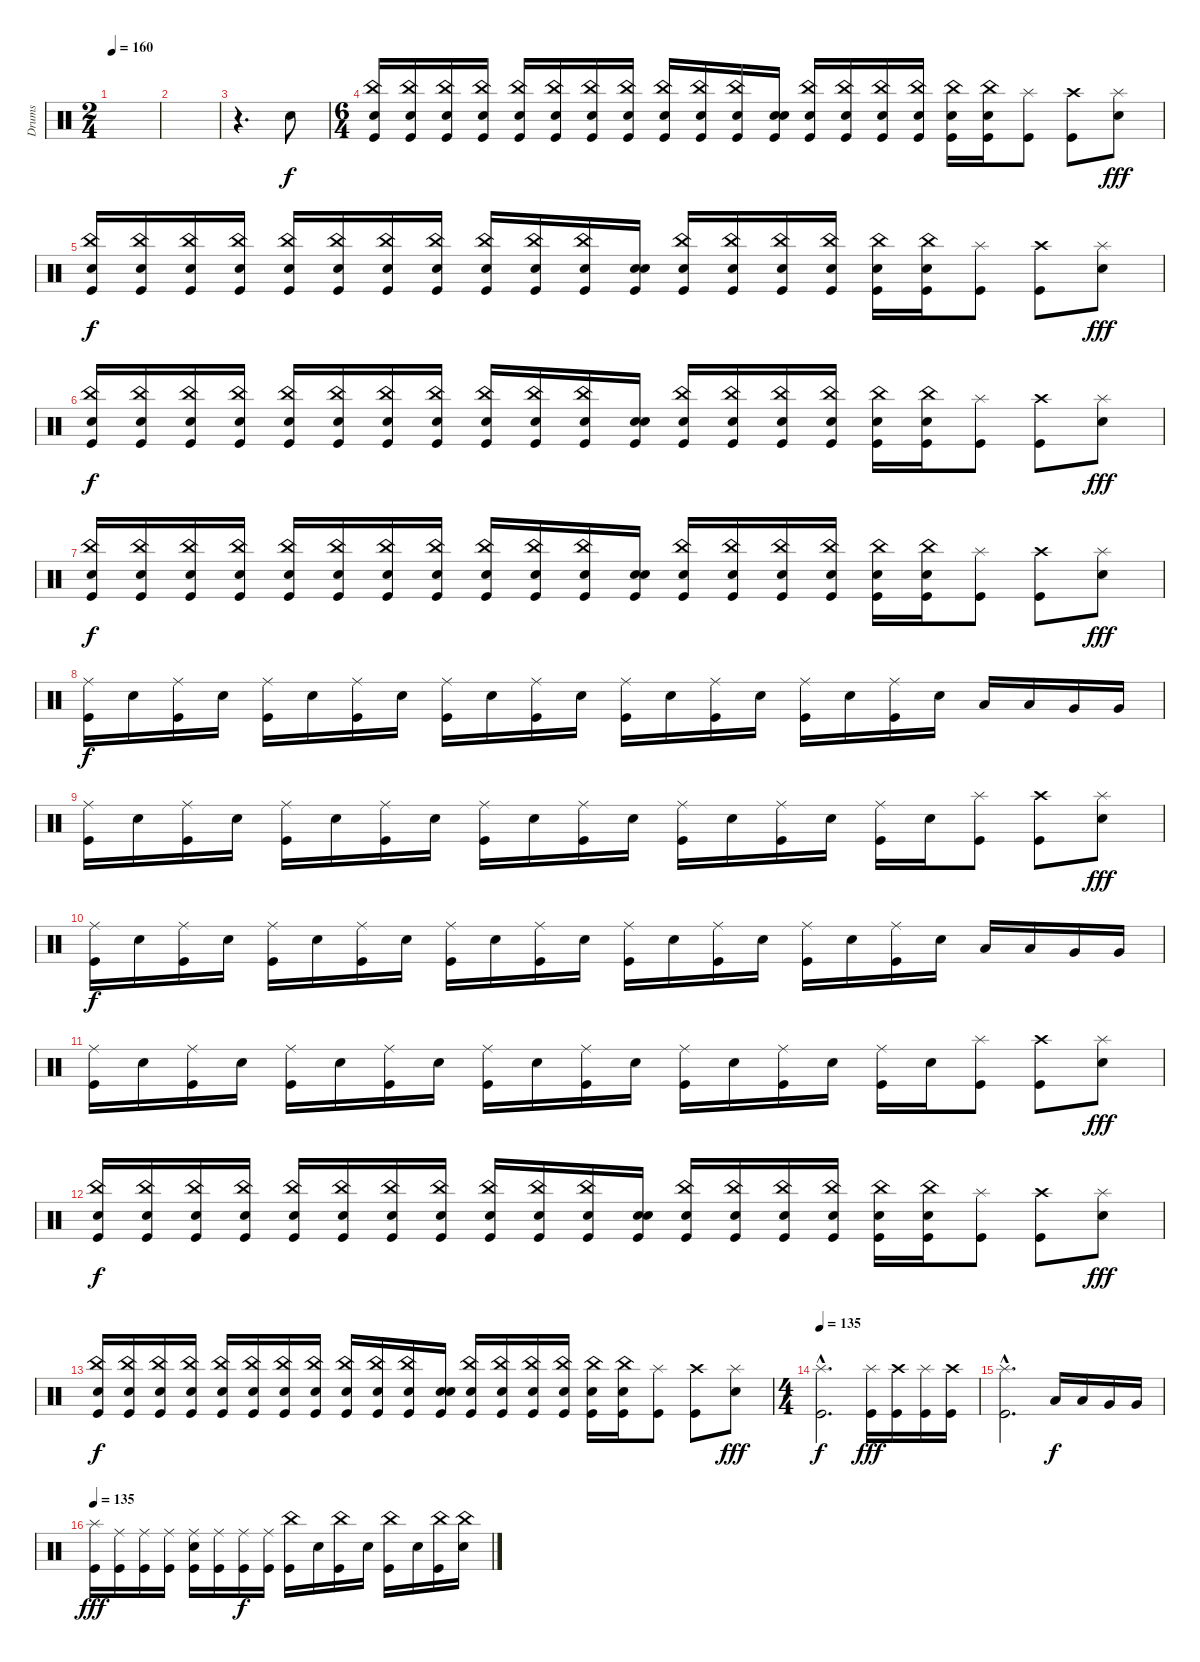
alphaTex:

\track ("Drums" "Drums") {instrument percussion}
\staff {score}
\articulation defaults
\ts (2 4)
\tempo 160
\clef neutral
\ks c
|
|
r.4{d} "Electric Snare (hit)".8 |
\ts (6 4)
("China (hit)" "Electric Snare (hit)" "Kick (hit)").16 ("China (hit)" "Electric Snare (hit)" "Kick (hit)").16 ("China (hit)" "Electric Snare (hit)" "Kick (hit)").16 ("China (hit)" "Electric Snare (hit)" "Kick (hit)").16 ("China (hit)" "Electric Snare (hit)" "Kick (hit)").16 ("China (hit)" "Electric Snare (hit)" "Kick (hit)").16 ("China (hit)" "Electric Snare (hit)" "Kick (hit)").16 ("China (hit)" "Electric Snare (hit)" "Kick (hit)").16 ("China (hit)" "Electric Snare (hit)" "Kick (hit)").16 ("China (hit)" "Electric Snare (hit)" "Kick (hit)").16 ("China (hit)" "Electric Snare (hit)" "Kick (hit)").16 ("Snare (hit)" "Electric Snare (hit)" "Kick (hit)").16 ("China (hit)" "Electric Snare (hit)" "Kick (hit)").16 ("China (hit)" "Electric Snare (hit)" "Kick (hit)").16 ("China (hit)" "Electric Snare (hit)" "Kick (hit)").16 ("China (hit)" "Electric Snare (hit)" "Kick (hit)").16 ("China (hit)" "Electric Snare (hit)" "Kick (hit)").16 ("China (hit)" "Electric Snare (hit)" "Kick (hit)").16 ("Splash (hit)" "Kick (hit)").8 ("Crash high (hit)" "Kick (hit)").8 ("Splash (hit)" "Electric Snare (hit)").8{dy fff} |
("China (hit)" "Electric Snare (hit)" "Kick (hit)").16{dy f} ("China (hit)" "Electric Snare (hit)" "Kick (hit)").16 ("China (hit)" "Electric Snare (hit)" "Kick (hit)").16 ("China (hit)" "Electric Snare (hit)" "Kick (hit)").16 ("China (hit)" "Electric Snare (hit)" "Kick (hit)").16 ("China (hit)" "Electric Snare (hit)" "Kick (hit)").16 ("China (hit)" "Electric Snare (hit)" "Kick (hit)").16 ("China (hit)" "Electric Snare (hit)" "Kick (hit)").16 ("China (hit)" "Electric Snare (hit)" "Kick (hit)").16 ("China (hit)" "Electric Snare (hit)" "Kick (hit)").16 ("China (hit)" "Electric Snare (hit)" "Kick (hit)").16 ("Snare (hit)" "Electric Snare (hit)" "Kick (hit)").16 ("China (hit)" "Electric Snare (hit)" "Kick (hit)").16 ("China (hit)" "Electric Snare (hit)" "Kick (hit)").16 ("China (hit)" "Electric Snare (hit)" "Kick (hit)").16 ("China (hit)" "Electric Snare (hit)" "Kick (hit)").16 ("China (hit)" "Electric Snare (hit)" "Kick (hit)").16 ("China (hit)" "Electric Snare (hit)" "Kick (hit)").16 ("Splash (hit)" "Kick (hit)").8 ("Crash high (hit)" "Kick (hit)").8 ("Splash (hit)" "Electric Snare (hit)").8{dy fff} |
("China (hit)" "Electric Snare (hit)" "Kick (hit)").16{dy f} ("China (hit)" "Electric Snare (hit)" "Kick (hit)").16 ("China (hit)" "Electric Snare (hit)" "Kick (hit)").16 ("China (hit)" "Electric Snare (hit)" "Kick (hit)").16 ("China (hit)" "Electric Snare (hit)" "Kick (hit)").16 ("China (hit)" "Electric Snare (hit)" "Kick (hit)").16 ("China (hit)" "Electric Snare (hit)" "Kick (hit)").16 ("China (hit)" "Electric Snare (hit)" "Kick (hit)").16 ("China (hit)" "Electric Snare (hit)" "Kick (hit)").16 ("China (hit)" "Electric Snare (hit)" "Kick (hit)").16 ("China (hit)" "Electric Snare (hit)" "Kick (hit)").16 ("Snare (hit)" "Electric Snare (hit)" "Kick (hit)").16 ("China (hit)" "Electric Snare (hit)" "Kick (hit)").16 ("China (hit)" "Electric Snare (hit)" "Kick (hit)").16 ("China (hit)" "Electric Snare (hit)" "Kick (hit)").16 ("China (hit)" "Electric Snare (hit)" "Kick (hit)").16 ("China (hit)" "Electric Snare (hit)" "Kick (hit)").16 ("China (hit)" "Electric Snare (hit)" "Kick (hit)").16 ("Splash (hit)" "Kick (hit)").8 ("Crash high (hit)" "Kick (hit)").8 ("Splash (hit)" "Electric Snare (hit)").8{dy fff} |
("China (hit)" "Electric Snare (hit)" "Kick (hit)").16{dy f} ("China (hit)" "Electric Snare (hit)" "Kick (hit)").16 ("China (hit)" "Electric Snare (hit)" "Kick (hit)").16 ("China (hit)" "Electric Snare (hit)" "Kick (hit)").16 ("China (hit)" "Electric Snare (hit)" "Kick (hit)").16 ("China (hit)" "Electric Snare (hit)" "Kick (hit)").16 ("China (hit)" "Electric Snare (hit)" "Kick (hit)").16 ("China (hit)" "Electric Snare (hit)" "Kick (hit)").16 ("China (hit)" "Electric Snare (hit)" "Kick (hit)").16 ("China (hit)" "Electric Snare (hit)" "Kick (hit)").16 ("China (hit)" "Electric Snare (hit)" "Kick (hit)").16 ("Snare (hit)" "Electric Snare (hit)" "Kick (hit)").16 ("China (hit)" "Electric Snare (hit)" "Kick (hit)").16 ("China (hit)" "Electric Snare (hit)" "Kick (hit)").16 ("China (hit)" "Electric Snare (hit)" "Kick (hit)").16 ("China (hit)" "Electric Snare (hit)" "Kick (hit)").16 ("China (hit)" "Electric Snare (hit)" "Kick (hit)").16 ("China (hit)" "Electric Snare (hit)" "Kick (hit)").16 ("Splash (hit)" "Kick (hit)").8 ("Crash high (hit)" "Kick (hit)").8 ("Splash (hit)" "Electric Snare (hit)").8{dy fff} |
("Ride (middle)" "Kick (hit)").16{dy f} "Electric Snare (hit)".16 ("Ride (middle)" "Kick (hit)").16 "Electric Snare (hit)".16 ("Ride (middle)" "Kick (hit)").16 "Electric Snare (hit)".16 ("Ride (middle)" "Kick (hit)").16 "Electric Snare (hit)".16 ("Ride (middle)" "Kick (hit)").16 "Electric Snare (hit)".16 ("Ride (middle)" "Kick (hit)").16 "Electric Snare (hit)".16 ("Ride (middle)" "Kick (hit)").16 "Electric Snare (hit)".16 ("Ride (middle)" "Kick (hit)").16 "Electric Snare (hit)".16 ("Ride (middle)" "Kick (hit)").16 "Electric Snare (hit)".16 ("Ride (middle)" "Kick (hit)").16 "Electric Snare (hit)".16 "Low Tom (hit)".16 "Low Tom (hit)".16 "Very Low Tom (hit)".16 "Very Low Tom (hit)".16 |
("Ride (middle)" "Kick (hit)").16 "Electric Snare (hit)".16 ("Ride (middle)" "Kick (hit)").16 "Electric Snare (hit)".16 ("Ride (middle)" "Kick (hit)").16 "Electric Snare (hit)".16 ("Ride (middle)" "Kick (hit)").16 "Electric Snare (hit)".16 ("Ride (middle)" "Kick (hit)").16 "Electric Snare (hit)".16 ("Ride (middle)" "Kick (hit)").16 "Electric Snare (hit)".16 ("Ride (middle)" "Kick (hit)").16 "Electric Snare (hit)".16 ("Ride (middle)" "Kick (hit)").16 "Electric Snare (hit)".16 ("Ride (middle)" "Kick (hit)").16 "Electric Snare (hit)".16 ("Splash (hit)" "Kick (hit)").8 ("Crash high (hit)" "Kick (hit)").8 ("Splash (hit)" "Electric Snare (hit)").8{dy fff} |
("Ride (middle)" "Kick (hit)").16{dy f} "Electric Snare (hit)".16 ("Ride (middle)" "Kick (hit)").16 "Electric Snare (hit)".16 ("Ride (middle)" "Kick (hit)").16 "Electric Snare (hit)".16 ("Ride (middle)" "Kick (hit)").16 "Electric Snare (hit)".16 ("Ride (middle)" "Kick (hit)").16 "Electric Snare (hit)".16 ("Ride (middle)" "Kick (hit)").16 "Electric Snare (hit)".16 ("Ride (middle)" "Kick (hit)").16 "Electric Snare (hit)".16 ("Ride (middle)" "Kick (hit)").16 "Electric Snare (hit)".16 ("Ride (middle)" "Kick (hit)").16 "Electric Snare (hit)".16 ("Ride (middle)" "Kick (hit)").16 "Electric Snare (hit)".16 "Low Tom (hit)".16 "Low Tom (hit)".16 "Very Low Tom (hit)".16 "Very Low Tom (hit)".16 |
("Ride (middle)" "Kick (hit)").16 "Electric Snare (hit)".16 ("Ride (middle)" "Kick (hit)").16 "Electric Snare (hit)".16 ("Ride (middle)" "Kick (hit)").16 "Electric Snare (hit)".16 ("Ride (middle)" "Kick (hit)").16 "Electric Snare (hit)".16 ("Ride (middle)" "Kick (hit)").16 "Electric Snare (hit)".16 ("Ride (middle)" "Kick (hit)").16 "Electric Snare (hit)".16 ("Ride (middle)" "Kick (hit)").16 "Electric Snare (hit)".16 ("Ride (middle)" "Kick (hit)").16 "Electric Snare (hit)".16 ("Ride (middle)" "Kick (hit)").16 "Electric Snare (hit)".16 ("Splash (hit)" "Kick (hit)").8 ("Crash high (hit)" "Kick (hit)").8 ("Splash (hit)" "Electric Snare (hit)").8{dy fff} |
("China (hit)" "Electric Snare (hit)" "Kick (hit)").16{dy f} ("China (hit)" "Electric Snare (hit)" "Kick (hit)").16 ("China (hit)" "Electric Snare (hit)" "Kick (hit)").16 ("China (hit)" "Electric Snare (hit)" "Kick (hit)").16 ("China (hit)" "Electric Snare (hit)" "Kick (hit)").16 ("China (hit)" "Electric Snare (hit)" "Kick (hit)").16 ("China (hit)" "Electric Snare (hit)" "Kick (hit)").16 ("China (hit)" "Electric Snare (hit)" "Kick (hit)").16 ("China (hit)" "Electric Snare (hit)" "Kick (hit)").16 ("China (hit)" "Electric Snare (hit)" "Kick (hit)").16 ("China (hit)" "Electric Snare (hit)" "Kick (hit)").16 ("Snare (hit)" "Electric Snare (hit)" "Kick (hit)").16 ("China (hit)" "Electric Snare (hit)" "Kick (hit)").16 ("China (hit)" "Electric Snare (hit)" "Kick (hit)").16 ("China (hit)" "Electric Snare (hit)" "Kick (hit)").16 ("China (hit)" "Electric Snare (hit)" "Kick (hit)").16 ("China (hit)" "Electric Snare (hit)" "Kick (hit)").16 ("China (hit)" "Electric Snare (hit)" "Kick (hit)").16 ("Splash (hit)" "Kick (hit)").8 ("Crash high (hit)" "Kick (hit)").8 ("Splash (hit)" "Electric Snare (hit)").8{dy fff} |
("China (hit)" "Electric Snare (hit)" "Kick (hit)").16{dy f} ("China (hit)" "Electric Snare (hit)" "Kick (hit)").16 ("China (hit)" "Electric Snare (hit)" "Kick (hit)").16 ("China (hit)" "Electric Snare (hit)" "Kick (hit)").16 ("China (hit)" "Electric Snare (hit)" "Kick (hit)").16 ("China (hit)" "Electric Snare (hit)" "Kick (hit)").16 ("China (hit)" "Electric Snare (hit)" "Kick (hit)").16 ("China (hit)" "Electric Snare (hit)" "Kick (hit)").16 ("China (hit)" "Electric Snare (hit)" "Kick (hit)").16 ("China (hit)" "Electric Snare (hit)" "Kick (hit)").16 ("China (hit)" "Electric Snare (hit)" "Kick (hit)").16 ("Snare (hit)" "Electric Snare (hit)" "Kick (hit)").16 ("China (hit)" "Electric Snare (hit)" "Kick (hit)").16 ("China (hit)" "Electric Snare (hit)" "Kick (hit)").16 ("China (hit)" "Electric Snare (hit)" "Kick (hit)").16 ("China (hit)" "Electric Snare (hit)" "Kick (hit)").16 ("China (hit)" "Electric Snare (hit)" "Kick (hit)").16 ("China (hit)" "Electric Snare (hit)" "Kick (hit)").16 ("Splash (hit)" "Kick (hit)").8 ("Crash high (hit)" "Kick (hit)").8 ("Splash (hit)" "Electric Snare (hit)").8{dy fff} |
\ts (4 4)
\tempo 135
("Splash (hit)"{hac} "Kick (hit)"{hac}).2{d dy f} ("Splash (hit)" "Kick (hit)").16{dy fff} ("Crash high (hit)" "Kick (hit)").16 ("Splash (hit)" "Kick (hit)").16 ("Crash high (hit)" "Kick (hit)").16 |
("Splash (hit)"{hac} "Kick (hit)"{hac}).2{d} "Low Tom (hit)".16{dy f} "Low Tom (hit)".16 "Very Low Tom (hit)".16 "Very Low Tom (hit)".16 |
\tempo 135
("Splash (hit)" "Kick (hit)").16{dy fff} ("Ride (middle)" "Kick (hit)").16 ("Ride (middle)" "Kick (hit)").16 ("Ride (middle)" "Kick (hit)").16 ("Ride (middle)" "Electric Snare (hit)" "Kick (hit)").16 ("Ride (middle)" "Kick (hit)").16 ("Ride (middle)" "Kick (hit)").16{dy f} ("Ride (middle)" "Kick (hit)").16 ("China (hit)" "Kick (hit)").16 "Electric Snare (hit)".16 ("China (hit)" "Kick (hit)").16 "Electric Snare (hit)".16 ("China (hit)" "Kick (hit)").16 "Electric Snare (hit)".16 ("China (hit)" "Kick (hit)").16 ("China (hit)" "Electric Snare (hit)").16
